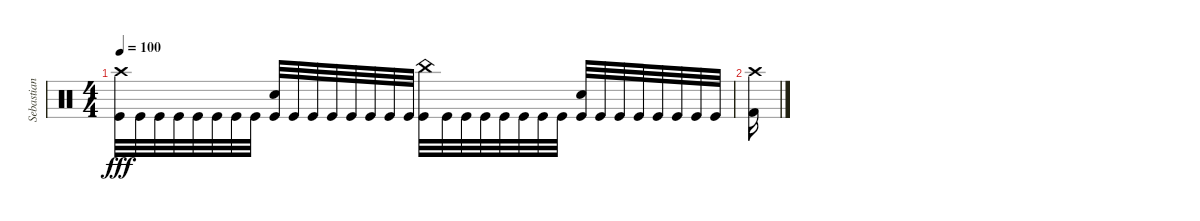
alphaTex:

\track ("Sebastian Heldt" "Sebastian ") {instrument percussion bank 177}
\staff {score}
\articulation defaults
\ts (4 4)
\tempo 100
\clef neutral
\ks c
("Kick (hit)" "Crash high (hit)").32{dy fff} "Kick (hit)".32 "Kick (hit)".32 "Kick (hit)".32 "Kick (hit)".32 "Kick (hit)".32 "Kick (hit)".32 "Kick (hit)".32 ("Kick (hit)" "Snare (hit) 2").32 "Kick (hit)".32 "Kick (hit)".32 "Kick (hit)".32 "Kick (hit)".32 "Kick (hit)".32 "Kick (hit)".32 "Kick (hit)".32 ("Kick (hit)" "China (hit)").32 "Kick (hit)".32 "Kick (hit)".32 "Kick (hit)".32 "Kick (hit)".32 "Kick (hit)".32 "Kick (hit)".32 "Kick (hit)".32 ("Kick (hit)" "Snare (hit) 2").32 "Kick (hit)".32 "Kick (hit)".32 "Kick (hit)".32 "Kick (hit)".32 "Kick (hit)".32 "Kick (hit)".32 "Kick (hit)".32 |
("Kick (hit) 2" "Crash high (hit)").16
